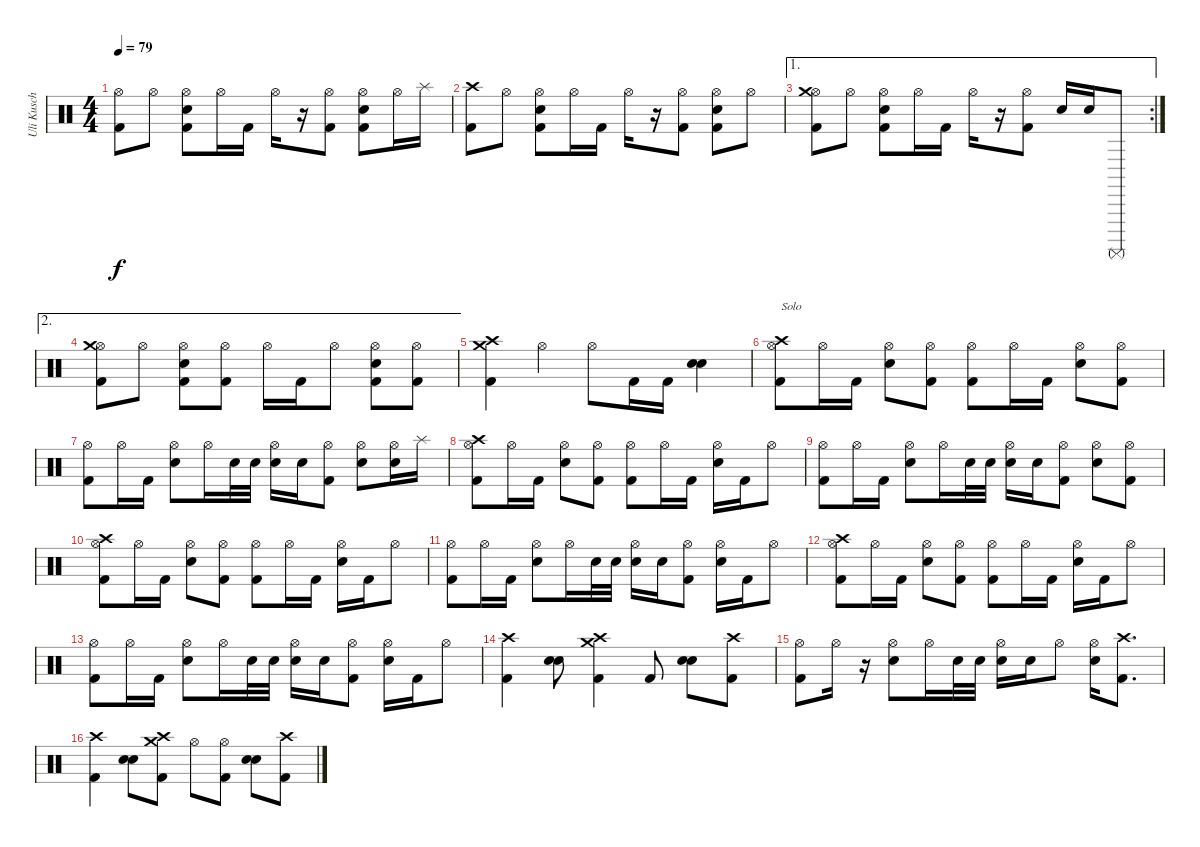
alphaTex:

\track ("Uli Kusch" "Uli Kusch") {instrument percussion}
\staff {score}
\articulation defaults
\ts (4 4)
\tempo 79
\clef neutral
\ks c
("Kick (hit) 2" "Hi-Hat (open)").8{dy f} "Hi-Hat (open)".8 ("Snare (hit) 2" "Kick (hit) 2" "Hi-Hat (open)").8 "Hi-Hat (open)".16 "Kick (hit) 2".16 "Hi-Hat (open)".16 r.16 ("Kick (hit) 2" "Hi-Hat (open)").8 ("Kick (hit) 2" "Snare (hit) 2" "Hi-Hat (open)").8 "Hi-Hat (open)".16 "Splash (hit)".16 |
("Kick (hit) 2" "Crash high (hit)").8 "Hi-Hat (open)".8 ("Snare (hit) 2" "Kick (hit) 2" "Hi-Hat (open)").8 "Hi-Hat (open)".16 "Kick (hit) 2".16 "Hi-Hat (open)".16 r.16 ("Kick (hit) 2" "Hi-Hat (open)").8 ("Kick (hit) 2" "Snare (hit) 2" "Hi-Hat (open)").8 "Hi-Hat (open)".8 |
\ae 1
\rc 2
("Kick (hit) 2" "Hi-Hat (open)" "Crash medium (hit)").8 "Hi-Hat (open)".8 ("Snare (hit) 2" "Kick (hit) 2" "Hi-Hat (open)").8 "Hi-Hat (open)".16 "Kick (hit) 2".16 "Hi-Hat (open)".16 r.16 ("Kick (hit) 2" "Hi-Hat (open)").8 "Snare (hit) 2".16 "Snare (hit) 2".16 "Surdo (mute)".8 |
\ae 2
("Kick (hit) 2" "Hi-Hat (open)" "Crash medium (hit)").8 "Hi-Hat (open)".8 ("Snare (hit) 2" "Kick (hit) 2" "Hi-Hat (open)").8 ("Kick (hit) 2" "Hi-Hat (open)").8 "Hi-Hat (open)".16 "Kick (hit) 2".16 "Hi-Hat (open)".8 ("Kick (hit) 2" "Snare (hit) 2" "Hi-Hat (open)").8 ("Kick (hit) 2" "Hi-Hat (open)").8 |
("Kick (hit) 2" "Crash high (hit)" "Crash medium (hit)").4 "Hi-Hat (open)".4 "Hi-Hat (open)".8 "Kick (hit) 2".16 "Kick (hit) 2".16 ("Snare (hit) 2" "Snare (hit) 2").4{bd 60} |
("Crash high (hit)" "Hi-Hat (open)" "Kick (hit) 2").8{txt "Solo"} "Hi-Hat (open)".16 "Kick (hit) 2".16 ("Snare (hit) 2" "Hi-Hat (open)").8 ("Kick (hit) 2" "Hi-Hat (open)").8 ("Hi-Hat (open)" "Kick (hit) 2").8 "Hi-Hat (open)".16 "Kick (hit) 2".16 ("Snare (hit) 2" "Hi-Hat (open)").8 ("Hi-Hat (open)" "Kick (hit) 2").8 |
("Hi-Hat (open)" "Kick (hit) 2").8 "Hi-Hat (open)".16 "Kick (hit) 2".16 ("Snare (hit) 2" "Hi-Hat (open)").8 "Hi-Hat (open)".16 "Snare (hit) 2".32 "Snare (hit) 2".32 ("Snare (hit) 2" "Hi-Hat (open)").16 "Snare (hit) 2".16 ("Kick (hit) 2" "Hi-Hat (open)").8 ("Snare (hit) 2" "Hi-Hat (open)").8 ("Snare (hit) 2" "Hi-Hat (open)").16 "Splash (hit)".16 |
("Crash high (hit)" "Hi-Hat (open)" "Kick (hit) 2").8 "Hi-Hat (open)".16 "Kick (hit) 2".16 ("Snare (hit) 2" "Hi-Hat (open)").8 ("Kick (hit) 2" "Hi-Hat (open)").8 ("Hi-Hat (open)" "Kick (hit) 2").8 "Hi-Hat (open)".16 "Kick (hit) 2".16 ("Snare (hit) 2" "Hi-Hat (open)").16 "Kick (hit) 2".16 "Hi-Hat (open)".8 |
("Hi-Hat (open)" "Kick (hit) 2").8 "Hi-Hat (open)".16 "Kick (hit) 2".16 ("Snare (hit) 2" "Hi-Hat (open)").8 "Hi-Hat (open)".16 "Snare (hit) 2".32 "Snare (hit) 2".32 ("Snare (hit) 2" "Hi-Hat (open)").16 "Snare (hit) 2".16 ("Kick (hit) 2" "Hi-Hat (open)").8 ("Snare (hit) 2" "Hi-Hat (open)").8 ("Kick (hit) 2" "Hi-Hat (open)").8 |
("Crash high (hit)" "Hi-Hat (open)" "Kick (hit) 2").8 "Hi-Hat (open)".16 "Kick (hit) 2".16 ("Snare (hit) 2" "Hi-Hat (open)").8 ("Kick (hit) 2" "Hi-Hat (open)").8 ("Hi-Hat (open)" "Kick (hit) 2").8 "Hi-Hat (open)".16 "Kick (hit) 2".16 ("Snare (hit) 2" "Hi-Hat (open)").16 "Kick (hit) 2".16 "Hi-Hat (open)".8 |
("Hi-Hat (open)" "Kick (hit) 2").8 "Hi-Hat (open)".16 "Kick (hit) 2".16 ("Snare (hit) 2" "Hi-Hat (open)").8 "Hi-Hat (open)".16 "Snare (hit) 2".32 "Snare (hit) 2".32 ("Snare (hit) 2" "Hi-Hat (open)").16 "Snare (hit) 2".16 ("Kick (hit) 2" "Hi-Hat (open)").8 ("Snare (hit) 2" "Hi-Hat (open)").16 "Kick (hit) 2".16 "Hi-Hat (open)".8 |
("Crash high (hit)" "Hi-Hat (open)" "Kick (hit) 2").8 "Hi-Hat (open)".16 "Kick (hit) 2".16 ("Snare (hit) 2" "Hi-Hat (open)").8 ("Kick (hit) 2" "Hi-Hat (open)").8 ("Hi-Hat (open)" "Kick (hit) 2").8 "Hi-Hat (open)".16 "Kick (hit) 2".16 ("Snare (hit) 2" "Hi-Hat (open)").16 "Kick (hit) 2".16 "Hi-Hat (open)".8 |
("Hi-Hat (open)" "Kick (hit) 2").8 "Hi-Hat (open)".16 "Kick (hit) 2".16 ("Snare (hit) 2" "Hi-Hat (open)").8 "Hi-Hat (open)".16 "Snare (hit) 2".32 "Snare (hit) 2".32 ("Snare (hit) 2" "Hi-Hat (open)").16 "Snare (hit) 2".16 ("Kick (hit) 2" "Hi-Hat (open)").8 ("Snare (hit) 2" "Hi-Hat (open)").16 "Kick (hit) 2".16 "Hi-Hat (open)".8 |
("Crash high (hit)" "Kick (hit) 2").4 ("Snare (hit) 2" "Snare (hit) 2").8{bd 60} ("Kick (hit) 2" "Crash high (hit)" "Crash medium (hit)").4 "Kick (hit) 2".8 ("Snare (hit) 2" "Snare (hit) 2").8 ("Crash high (hit)" "Kick (hit) 2").8 |
("Hi-Hat (open)" "Kick (hit) 2").8 "Hi-Hat (open)".16 r.16 ("Snare (hit) 2" "Hi-Hat (open)").8 "Hi-Hat (open)".16 "Snare (hit) 2".32 "Snare (hit) 2".32 ("Snare (hit) 2" "Hi-Hat (open)").16 "Snare (hit) 2".16 "Hi-Hat (open)".8 ("Snare (hit) 2" "Hi-Hat (open)").16 ("Crash high (hit)" "Kick (hit) 2").8{d} |
("Crash high (hit)" "Kick (hit) 2").4 ("Snare (hit) 2" "Snare (hit) 2").8{bd 60} ("Kick (hit) 2" "Crash high (hit)" "Crash medium (hit)").8 "Hi-Hat (open)".8 ("Hi-Hat (open)" "Kick (hit) 2").8 ("Snare (hit) 2" "Snare (hit) 2").8 ("Kick (hit) 2" "Crash high (hit)").8
